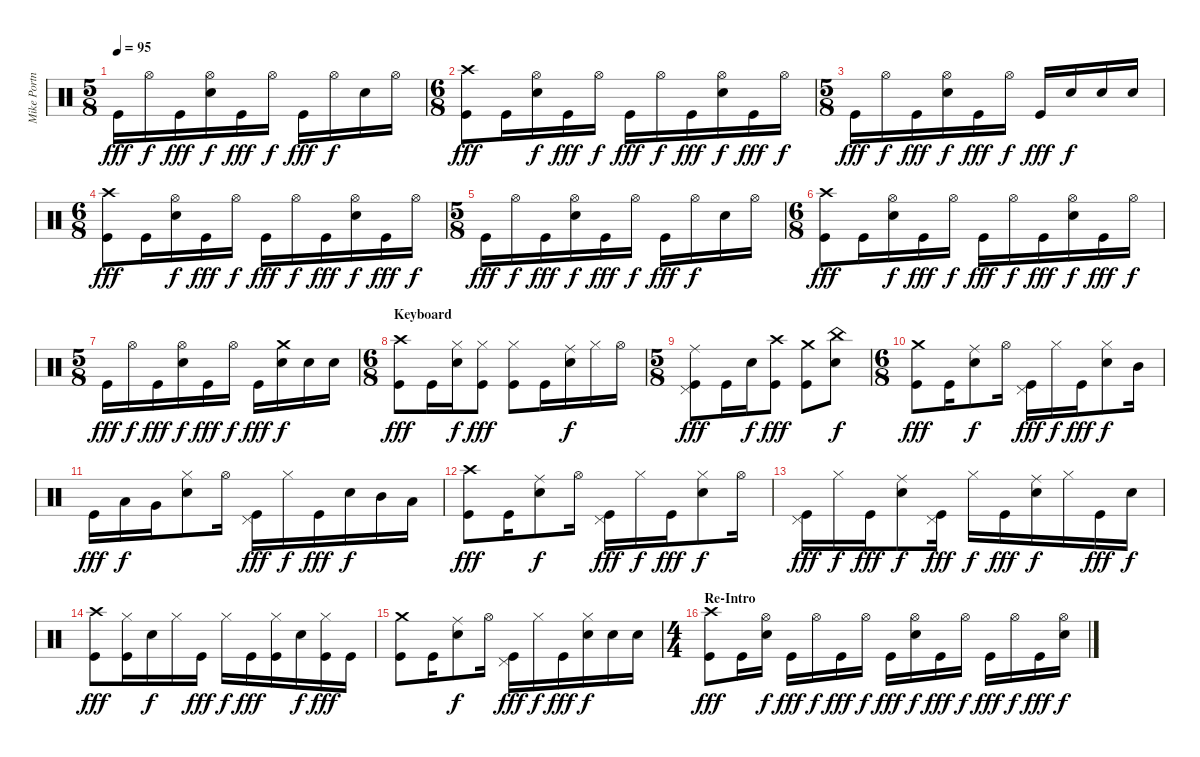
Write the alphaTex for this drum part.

\track ("Mike Portnoy" "Mike Portn") {instrument percussion}
\staff {score}
\articulation defaults
\ts (5 8)
\tempo 95
\clef neutral
\ks c "Kick (hit)".16{dy fff} "Hi-Hat (open)".16{dy f} "Kick (hit)".16{dy fff}
("Hi-Hat (open)" "Electric Snare (hit)").16{dy f} "Kick (hit)".16{dy fff} "Hi-Hat (open)".16{dy f} "Kick (hit)".16{dy fff} "Hi-Hat (open)".16{dy f} "Electric Snare (hit)".16 "Hi-Hat (open)".16 |
\ts (6 8)
("Crash high (hit)" "Kick (hit)").8{dy fff} "Kick (hit)".16 ("Hi-Hat (open)" "Electric Snare (hit)").16{dy f} "Kick (hit)".16{dy fff} "Hi-Hat (open)".16{dy f} "Kick (hit)".16{dy fff} "Hi-Hat (open)".16{dy f} "Kick (hit)".16{dy fff} ("Hi-Hat (open)" "Electric Snare (hit)").16{dy f} "Kick (hit)".16{dy fff} "Hi-Hat (open)".16{dy f} |
\ts (5 8)
"Kick (hit)".16{dy fff} "Hi-Hat (open)".16{dy f} "Kick (hit)".16{dy fff} ("Hi-Hat (open)" "Electric Snare (hit)").16{dy f} "Kick (hit)".16{dy fff} "Hi-Hat (open)".16{dy f} "Kick (hit)".16{dy fff} "Electric Snare (hit)".16{dy f} "Electric Snare (hit)".16 "Electric Snare (hit)".16 |
\ts (6 8)
("Crash high (hit)" "Kick (hit)").8{dy fff} "Kick (hit)".16 ("Hi-Hat (open)" "Electric Snare (hit)").16{dy f} "Kick (hit)".16{dy fff} "Hi-Hat (open)".16{dy f} "Kick (hit)".16{dy fff} "Hi-Hat (open)".16{dy f} "Kick (hit)".16{dy fff} ("Hi-Hat (open)" "Electric Snare (hit)").16{dy f} "Kick (hit)".16{dy fff} "Hi-Hat (open)".16{dy f} |
\ts (5 8)
"Kick (hit)".16{dy fff} "Hi-Hat (open)".16{dy f} "Kick (hit)".16{dy fff} ("Hi-Hat (open)" "Electric Snare (hit)").16{dy f} "Kick (hit)".16{dy fff} "Hi-Hat (open)".16{dy f} "Kick (hit)".16{dy fff} "Hi-Hat (open)".16{dy f} "Electric Snare (hit)".16 "Hi-Hat (open)".16 |
\ts (6 8)
("Crash high (hit)" "Kick (hit)").8{dy fff} "Kick (hit)".16 ("Hi-Hat (open)" "Electric Snare (hit)").16{dy f} "Kick (hit)".16{dy fff} "Hi-Hat (open)".16{dy f} "Kick (hit)".16{dy fff} "Hi-Hat (open)".16{dy f} "Kick (hit)".16{dy fff} ("Hi-Hat (open)" "Electric Snare (hit)").16{dy f} "Kick (hit)".16{dy fff} "Hi-Hat (open)".16{dy f} |
\ts (5 8)
"Kick (hit)".16{dy fff} "Hi-Hat (open)".16{dy f} "Kick (hit)".16{dy fff} ("Hi-Hat (open)" "Electric Snare (hit)").16{dy f} "Kick (hit)".16{dy fff} "Hi-Hat (open)".16{dy f} "Kick (hit)".16{dy fff} ("Crash medium (hit)" "Electric Snare (hit)").16{dy f} "Electric Snare (hit)".16 "Electric Snare (hit)".16 |
\ts (6 8)
\section ("" "Keyboard")
("Crash high (hit)" "Kick (hit)").8{dy fff} "Kick (hit)".16 ("Hi-Hat (closed)" "Electric Snare (hit)").16{dy f} ("Hi-Hat (closed)" "Kick (hit)").8{dy fff} ("Hi-Hat (closed)" "Kick (hit)").8 "Kick (hit)".16 ("Ride (middle)" "Electric Snare (hit)").16{dy f} "Hi-Hat (closed)".16 "Hi-Hat (open)".16 |
\ts (5 8)
("Ride (middle)" "Pedal Hi-Hat (hit)" "Kick (hit)").8{dy fff} "Kick (hit)".16 "Electric Snare (hit)".16{dy f} ("Crash high (hit)" "Kick (hit)").8{dy fff} ("Crash medium (hit)" "Kick (hit)").8 ("China (hit)" "Electric Snare (hit)").8{dy f} |
\ts (6 8)
("Crash medium (hit)" "Kick (hit)").8{dy fff} "Kick (hit)".16 ("Ride (middle)" "Electric Snare (hit)").8{dy f} "Hi-Hat (open)".16 ("Pedal Hi-Hat (hit)" "Kick (hit)").16{dy fff} "Hi-Hat (closed)".16{dy f} "Kick (hit)".16{dy fff} ("Hi-Hat (closed)" "Electric Snare (hit)").8{dy f} "Mid Tom (hit)".16 |
"Kick (hit)".16{dy fff} "Low Tom (hit)".16{dy f} "Very Low Tom (hit)".16 ("Hi-Hat (closed)" "Electric Snare (hit)").8 "Hi-Hat (open)".16 ("Pedal Hi-Hat (hit)" "Kick (hit)").16{dy fff} "Hi-Hat (closed)".16{dy f} "Kick (hit)".16{dy fff} "Electric Snare (hit)".16{dy f} "Mid Tom (hit)".16 "Low Tom (hit)".16 |
("Crash high (hit)" "Kick (hit)").8{dy fff} "Kick (hit)".16 ("Ride (middle)" "Electric Snare (hit)").8{dy f} "Hi-Hat (open)".16 ("Pedal Hi-Hat (hit)" "Kick (hit)").16{dy fff} "Hi-Hat (closed)".16{dy f} "Kick (hit)".16{dy fff} ("Hi-Hat (closed)" "Electric Snare (hit)").8{dy f} "Hi-Hat (open)".16 |
("Pedal Hi-Hat (hit)" "Kick (hit)").16{dy fff} "Hi-Hat (closed)".16{dy f} "Kick (hit)".16{dy fff} ("Ride (middle)" "Electric Snare (hit)").8{dy f} ("Pedal Hi-Hat (hit)" "Kick (hit)").16{dy fff} "Hi-Hat (closed)".16{dy f} "Kick (hit)".16{dy fff} ("Ride (middle)" "Electric Snare (hit)").16{dy f} "Hi-Hat (closed)".16 "Kick (hit)".16{dy fff} "Electric Snare (hit)".16{dy f} |
("Crash high (hit)" "Kick (hit)").8{dy fff} ("Hi-Hat (closed)" "Kick (hit)").16 "Electric Snare (hit)".16{dy f} "Hi-Hat (closed)".16 "Kick (hit)".16{dy fff} "Hi-Hat (closed)".16{dy f} "Kick (hit)".16{dy fff} ("Hi-Hat (closed)" "Kick (hit)").16 "Electric Snare (hit)".16{dy f} ("Hi-Hat (closed)" "Kick (hit)").16{dy fff} "Kick (hit)".16 |
("Crash medium (hit)" "Kick (hit)").8 "Kick (hit)".16 ("Ride (middle)" "Electric Snare (hit)").8{dy f} "Hi-Hat (open)".16 ("Pedal Hi-Hat (hit)" "Kick (hit)").16{dy fff} "Hi-Hat (closed)".16{dy f} "Kick (hit)".16{dy fff} ("Hi-Hat (closed)" "Electric Snare (hit)").16{dy f} "Electric Snare (hit)".16 "Electric Snare (hit)".16 |
\ts (4 4)
\section ("" "Re-Intro")
("Crash high (hit)" "Kick (hit)").8{dy fff} "Kick (hit)".16 ("Hi-Hat (open)" "Electric Snare (hit)").16{dy f} "Kick (hit)".16{dy fff} "Hi-Hat (open)".16{dy f} "Kick (hit)".16{dy fff} "Hi-Hat (open)".16{dy f} "Kick (hit)".16{dy fff} ("Hi-Hat (open)" "Electric Snare (hit)").16{dy f} "Kick (hit)".16{dy fff} "Hi-Hat (open)".16{dy f} "Kick (hit)".16{dy fff} "Hi-Hat (open)".16{dy f} "Kick (hit)".16{dy fff} ("Hi-Hat (open)" "Electric Snare (hit)").16{dy f}
